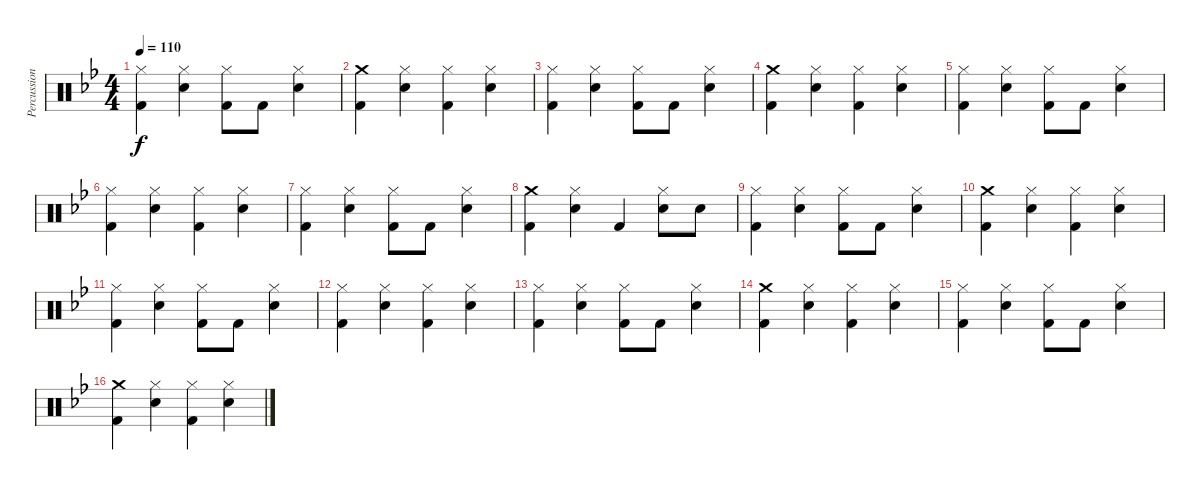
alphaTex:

\track ("Percussion" "Percussion") {instrument percussion}
\staff {score}
\articulation defaults
\ts (4 4)
\tempo 110
\clef neutral
\ks gminor
("Hi-Hat (closed)" "Kick (hit) 2").4{dy f} ("Hi-Hat (closed)" "Electric Snare (hit)").4 ("Hi-Hat (closed)" "Kick (hit) 2").8 "Kick (hit) 2".8 ("Hi-Hat (closed)" "Electric Snare (hit)").4 |
("Crash medium (hit)" "Kick (hit) 2").4 ("Hi-Hat (closed)" "Electric Snare (hit)").4 ("Hi-Hat (closed)" "Kick (hit) 2").4 ("Hi-Hat (closed)" "Electric Snare (hit)").4 |
("Hi-Hat (closed)" "Kick (hit) 2").4 ("Hi-Hat (closed)" "Electric Snare (hit)").4 ("Hi-Hat (closed)" "Kick (hit) 2").8 "Kick (hit) 2".8 ("Hi-Hat (closed)" "Electric Snare (hit)").4 |
("Crash medium (hit)" "Kick (hit) 2").4 ("Hi-Hat (closed)" "Electric Snare (hit)").4 ("Hi-Hat (closed)" "Kick (hit) 2").4 ("Hi-Hat (closed)" "Electric Snare (hit)").4 |
("Hi-Hat (closed)" "Kick (hit) 2").4 ("Hi-Hat (closed)" "Electric Snare (hit)").4 ("Hi-Hat (closed)" "Kick (hit) 2").8 "Kick (hit) 2".8 ("Hi-Hat (closed)" "Electric Snare (hit)").4 |
("Hi-Hat (closed)" "Kick (hit) 2").4 ("Hi-Hat (closed)" "Electric Snare (hit)").4 ("Hi-Hat (closed)" "Kick (hit) 2").4 ("Hi-Hat (closed)" "Electric Snare (hit)").4 |
("Hi-Hat (closed)" "Kick (hit) 2").4 ("Hi-Hat (closed)" "Electric Snare (hit)").4 ("Hi-Hat (closed)" "Kick (hit) 2").8 "Kick (hit) 2".8 ("Hi-Hat (closed)" "Electric Snare (hit)").4 |
("Crash medium (hit)" "Kick (hit) 2").4 ("Hi-Hat (closed)" "Electric Snare (hit)").4 "Kick (hit) 2".4 ("Hi-Hat (closed)" "Electric Snare (hit)").8 "Electric Snare (hit)".8 |
("Hi-Hat (closed)" "Kick (hit) 2").4 ("Hi-Hat (closed)" "Electric Snare (hit)").4 ("Hi-Hat (closed)" "Kick (hit) 2").8 "Kick (hit) 2".8 ("Hi-Hat (closed)" "Electric Snare (hit)").4 |
("Crash medium (hit)" "Kick (hit) 2").4 ("Hi-Hat (closed)" "Electric Snare (hit)").4 ("Hi-Hat (closed)" "Kick (hit) 2").4 ("Hi-Hat (closed)" "Electric Snare (hit)").4 |
("Hi-Hat (closed)" "Kick (hit) 2").4 ("Hi-Hat (closed)" "Electric Snare (hit)").4 ("Hi-Hat (closed)" "Kick (hit) 2").8 "Kick (hit) 2".8 ("Hi-Hat (closed)" "Electric Snare (hit)").4 |
("Hi-Hat (closed)" "Kick (hit) 2").4 ("Hi-Hat (closed)" "Electric Snare (hit)").4 ("Hi-Hat (closed)" "Kick (hit) 2").4 ("Hi-Hat (closed)" "Electric Snare (hit)").4 |
("Hi-Hat (closed)" "Kick (hit) 2").4 ("Hi-Hat (closed)" "Electric Snare (hit)").4 ("Hi-Hat (closed)" "Kick (hit) 2").8 "Kick (hit) 2".8 ("Hi-Hat (closed)" "Electric Snare (hit)").4 |
("Crash medium (hit)" "Kick (hit) 2").4 ("Hi-Hat (closed)" "Electric Snare (hit)").4 ("Hi-Hat (closed)" "Kick (hit) 2").4 ("Hi-Hat (closed)" "Electric Snare (hit)").4 |
("Hi-Hat (closed)" "Kick (hit) 2").4 ("Hi-Hat (closed)" "Electric Snare (hit)").4 ("Hi-Hat (closed)" "Kick (hit) 2").8 "Kick (hit) 2".8 ("Hi-Hat (closed)" "Electric Snare (hit)").4 |
("Crash medium (hit)" "Kick (hit) 2").4 ("Hi-Hat (closed)" "Electric Snare (hit)").4 ("Hi-Hat (closed)" "Kick (hit) 2").4 ("Hi-Hat (closed)" "Electric Snare (hit)").4
